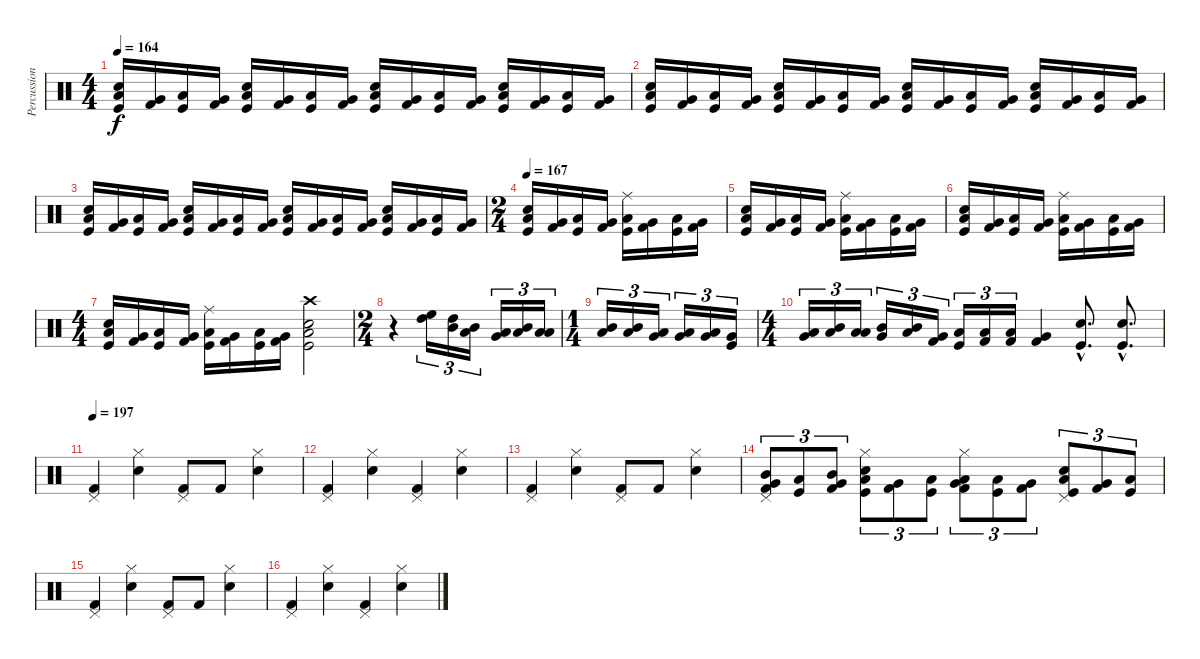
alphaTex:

\track ("Percussions" "Percussion") {instrument percussion}
\staff {score}
\articulation defaults
\ts (4 4)
\tempo 164
\clef neutral
\ks c
("Kick (hit)" "Low Tom (hit)" "Electric Snare (hit)").16{dy f} ("Kick (hit) 2" "Very Low Tom (hit)").16 ("Kick (hit)" "Low Tom (hit)").16 ("Kick (hit) 2" "Very Low Tom (hit)").16 ("Kick (hit)" "Low Tom (hit)" "Electric Snare (hit)").16 ("Kick (hit) 2" "Very Low Tom (hit)").16 ("Kick (hit)" "Low Tom (hit)").16 ("Kick (hit) 2" "Very Low Tom (hit)").16 ("Kick (hit)" "Low Tom (hit)" "Electric Snare (hit)").16 ("Kick (hit) 2" "Very Low Tom (hit)").16 ("Kick (hit)" "Low Tom (hit)").16 ("Kick (hit) 2" "Very Low Tom (hit)").16 ("Kick (hit)" "Low Tom (hit)" "Electric Snare (hit)").16 ("Kick (hit) 2" "Very Low Tom (hit)").16 ("Kick (hit)" "Low Tom (hit)").16 ("Kick (hit) 2" "Very Low Tom (hit)").16 |
("Kick (hit)" "Low Tom (hit)" "Electric Snare (hit)").16 ("Kick (hit) 2" "Very Low Tom (hit)").16 ("Kick (hit)" "Low Tom (hit)").16 ("Kick (hit) 2" "Very Low Tom (hit)").16 ("Kick (hit)" "Low Tom (hit)" "Electric Snare (hit)").16 ("Kick (hit) 2" "Very Low Tom (hit)").16 ("Kick (hit)" "Low Tom (hit)").16 ("Kick (hit) 2" "Very Low Tom (hit)").16 ("Kick (hit)" "Low Tom (hit)" "Electric Snare (hit)").16 ("Kick (hit) 2" "Very Low Tom (hit)").16 ("Kick (hit)" "Low Tom (hit)").16 ("Kick (hit) 2" "Very Low Tom (hit)").16 ("Kick (hit)" "Low Tom (hit)" "Electric Snare (hit)").16 ("Kick (hit) 2" "Very Low Tom (hit)").16 ("Kick (hit)" "Low Tom (hit)").16 ("Kick (hit) 2" "Very Low Tom (hit)").16 |
("Kick (hit)" "Low Tom (hit)" "Electric Snare (hit)").16 ("Kick (hit) 2" "Very Low Tom (hit)").16 ("Kick (hit)" "Low Tom (hit)").16 ("Kick (hit) 2" "Very Low Tom (hit)").16 ("Kick (hit)" "Low Tom (hit)" "Electric Snare (hit)").16 ("Kick (hit) 2" "Very Low Tom (hit)").16 ("Kick (hit)" "Low Tom (hit)").16 ("Kick (hit) 2" "Very Low Tom (hit)").16 ("Kick (hit)" "Low Tom (hit)" "Electric Snare (hit)").16 ("Kick (hit) 2" "Very Low Tom (hit)").16 ("Kick (hit)" "Low Tom (hit)").16 ("Kick (hit) 2" "Very Low Tom (hit)").16 ("Kick (hit)" "Low Tom (hit)" "Electric Snare (hit)").16 ("Kick (hit) 2" "Very Low Tom (hit)").16 ("Kick (hit)" "Low Tom (hit)").16 ("Kick (hit) 2" "Very Low Tom (hit)").16 |
\ts (2 4)
\tempo 167
("Kick (hit)" "Low Tom (hit)" "Electric Snare (hit)").16 ("Kick (hit) 2" "Very Low Tom (hit)").16 ("Kick (hit)" "Low Tom (hit)").16 ("Kick (hit) 2" "Very Low Tom (hit)").16 ("Kick (hit)" "Low Tom (hit)" "Ride (middle)").16 ("Kick (hit) 2" "Very Low Tom (hit)").16 ("Kick (hit)" "Low Tom (hit)").16 ("Kick (hit) 2" "Very Low Tom (hit)").16 |
("Kick (hit)" "Low Tom (hit)" "Electric Snare (hit)").16 ("Kick (hit) 2" "Very Low Tom (hit)").16 ("Kick (hit)" "Low Tom (hit)").16 ("Kick (hit) 2" "Very Low Tom (hit)").16 ("Kick (hit)" "Low Tom (hit)" "Ride (middle)").16 ("Kick (hit) 2" "Very Low Tom (hit)").16 ("Kick (hit)" "Low Tom (hit)").16 ("Kick (hit) 2" "Very Low Tom (hit)").16 |
("Kick (hit)" "Low Tom (hit)" "Electric Snare (hit)").16 ("Kick (hit) 2" "Very Low Tom (hit)").16 ("Kick (hit)" "Low Tom (hit)").16 ("Kick (hit) 2" "Very Low Tom (hit)").16 ("Kick (hit)" "Low Tom (hit)" "Ride (middle)").16 ("Kick (hit) 2" "Very Low Tom (hit)").16 ("Kick (hit)" "Low Tom (hit)").16 ("Kick (hit) 2" "Very Low Tom (hit)").16 |
\ts (4 4)
("Kick (hit)" "Low Tom (hit)" "Electric Snare (hit)").16 ("Kick (hit) 2" "Very Low Tom (hit)").16 ("Kick (hit)" "Low Tom (hit)").16 ("Kick (hit) 2" "Very Low Tom (hit)").16 ("Kick (hit)" "Low Tom (hit)" "Ride (middle)").16 ("Kick (hit) 2" "Very Low Tom (hit)").16 ("Kick (hit)" "Low Tom (hit)").16 ("Kick (hit) 2" "Very Low Tom (hit)").16 ("Kick (hit)" "Low Tom (hit)" "Electric Snare (hit)" "Crash high (hit)").2 |
\ts (2 4)
r.4 ("High Floor Tom (hit)" "High Tom (hit)").16{tu (3 2) volume 16} ("High Tom (hit)" "Mid Tom (hit)").16{tu (3 2)} ("Mid Tom (hit)" "Low Tom (hit)").16{tu (3 2)} ("Low Tom (hit)" "Very Low Tom (hit)").16{tu (3 2)} ("Low Tom (hit)" "Mid Tom (hit)").16{tu (3 2)} ("Low Tom (hit)" "Low Tom (hit)").16{tu (3 2)} |
\ts (1 4)
("Mid Tom (hit)" "Low Tom (hit)").16{tu (3 2)} ("Low Tom (hit)" "Mid Tom (hit)").16{tu (3 2)} ("Very Low Tom (hit)" "Low Tom (hit)").16{tu (3 2)} ("Low Floor Tom (hit)" "Very Low Tom (hit)").16{tu (3 2)} ("Low Tom (hit)" "Very Low Tom (hit)").16{tu (3 2)} ("Kick (hit)" "Very Low Tom (hit)").16{tu (3 2)} |
\ts (4 4)
("Very Low Tom (hit)" "Low Floor Tom (hit)").16{tu (3 2)} ("Mid Tom (hit)" "Low Floor Tom (hit)").16{tu (3 2)} ("Low Tom (hit)" "Low Tom (hit)").16{tu (3 2)} ("Mid Tom (hit)" "Very Low Tom (hit)").16{tu (3 2)} ("Mid Tom (hit)" "Low Floor Tom (hit)").16{tu (3 2)} ("Very Low Tom (hit)" "Kick (hit) 2").16{tu (3 2)} ("Low Tom (hit)" "Kick (hit)").16{tu (3 2)} ("Kick (hit) 2" "Low Tom (hit)").16{tu (3 2)} ("Low Floor Tom (hit)" "Kick (hit) 2").16{tu (3 2)} ("Very Low Tom (hit)" "Kick (hit) 2").4 ("Electric Snare (hit)"{hac} "Kick (hit)"{hac}).8{d} ("Electric Snare (hit)"{hac} "Kick (hit)"{hac}).8{d} |
\tempo 197
("Pedal Hi-Hat (hit)" "Kick (hit) 2").4{volume 14} ("Hi-Hat (closed)" "Electric Snare (hit)").4 ("Pedal Hi-Hat (hit)" "Kick (hit) 2").8 "Kick (hit) 2".8 ("Hi-Hat (closed)" "Electric Snare (hit)").4 |
("Pedal Hi-Hat (hit)" "Kick (hit) 2").4 ("Hi-Hat (closed)" "Electric Snare (hit)").4 ("Pedal Hi-Hat (hit)" "Kick (hit) 2").4 ("Hi-Hat (closed)" "Electric Snare (hit)").4 |
("Pedal Hi-Hat (hit)" "Kick (hit) 2").4 ("Hi-Hat (closed)" "Electric Snare (hit)").4 ("Pedal Hi-Hat (hit)" "Kick (hit) 2").8 "Kick (hit) 2".8 ("Hi-Hat (closed)" "Electric Snare (hit)").4 |
("Pedal Hi-Hat (hit)" "Mid Tom (hit)" "Very Low Tom (hit)" "Kick (hit) 2").8{tu (3 2)} ("Low Tom (hit)" "Kick (hit)").8{tu (3 2)} ("Mid Tom (hit)" "Very Low Tom (hit)" "Kick (hit) 2").8{tu (3 2)} ("Hi-Hat (closed)" "Electric Snare (hit)" "Low Tom (hit)" "Kick (hit)").8{tu (3 2)} ("Very Low Tom (hit)" "Kick (hit) 2").8{tu (3 2)} ("Low Tom (hit)" "Kick (hit)").8{tu (3 2)} ("Hi-Hat (closed)" "Low Tom (hit)" "Very Low Tom (hit)" "Kick (hit) 2").8{tu (3 2)} ("Low Tom (hit)" "Kick (hit)").8{tu (3 2)} ("Very Low Tom (hit)" "Kick (hit) 2").8{tu (3 2)} ("Pedal Hi-Hat (hit)" "Electric Snare (hit)" "Low Tom (hit)" "Kick (hit)").8{tu (3 2)} ("Very Low Tom (hit)" "Kick (hit) 2").8{tu (3 2)} ("Low Tom (hit)" "Kick (hit)").8{tu (3 2)} |
("Pedal Hi-Hat (hit)" "Kick (hit) 2").4 ("Hi-Hat (closed)" "Electric Snare (hit)").4 ("Pedal Hi-Hat (hit)" "Kick (hit) 2").8 "Kick (hit) 2".8 ("Hi-Hat (closed)" "Electric Snare (hit)").4 |
("Pedal Hi-Hat (hit)" "Kick (hit) 2").4 ("Hi-Hat (closed)" "Electric Snare (hit)").4 ("Pedal Hi-Hat (hit)" "Kick (hit) 2").4 ("Hi-Hat (closed)" "Electric Snare (hit)").4
